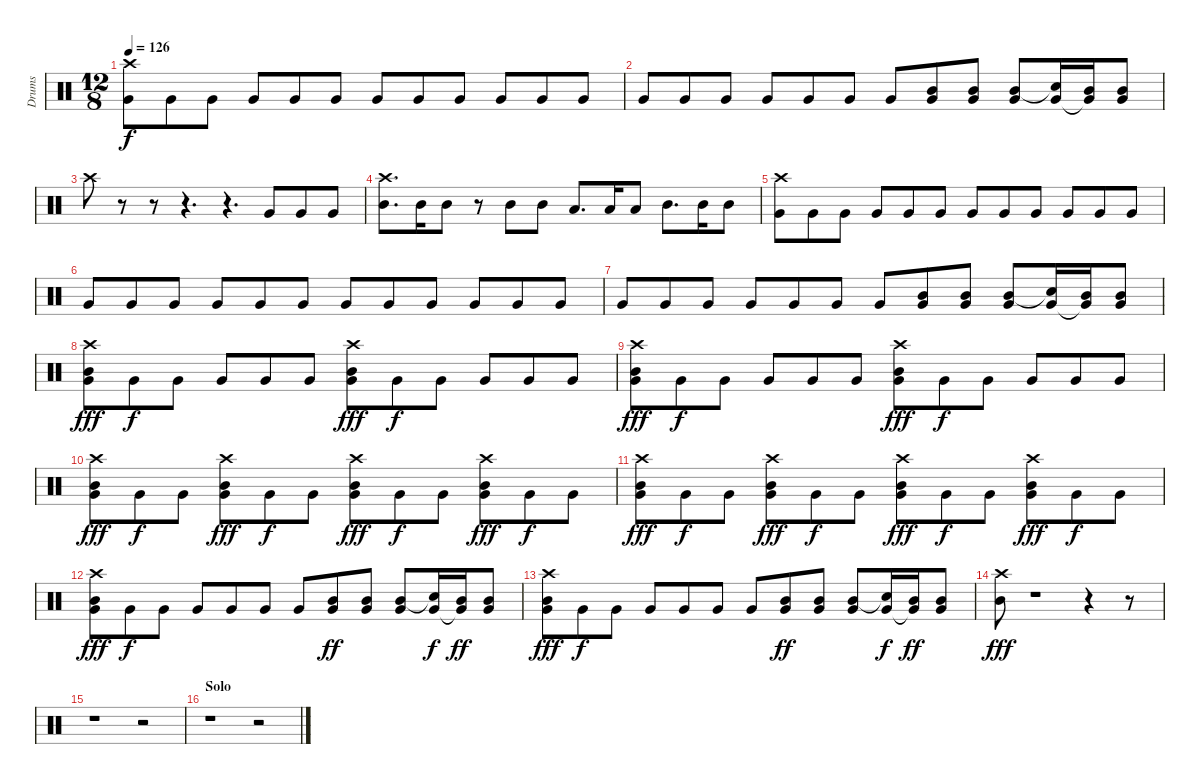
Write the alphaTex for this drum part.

\track ("Drums" "Drums") {instrument percussion}
\staff {score}
\articulation defaults
\ts (12 8)
\tempo 126
\clef neutral
\ks c
("Crash high (hit)" "Very Low Tom (hit)").8{dy f} "Very Low Tom (hit)".8 "Very Low Tom (hit)".8 "Very Low Tom (hit)".8 "Very Low Tom (hit)".8 "Very Low Tom (hit)".8 "Very Low Tom (hit)".8 "Very Low Tom (hit)".8 "Very Low Tom (hit)".8 "Very Low Tom (hit)".8 "Very Low Tom (hit)".8 "Very Low Tom (hit)".8 |
"Very Low Tom (hit)".8 "Very Low Tom (hit)".8 "Very Low Tom (hit)".8 "Very Low Tom (hit)".8 "Very Low Tom (hit)".8 "Very Low Tom (hit)".8 "Very Low Tom (hit)".8 ("Mid Tom (hit)" "Very Low Tom (hit)").8 ("Mid Tom (hit)" "Very Low Tom (hit)").8 ("Mid Tom (hit)" "Very Low Tom (hit)").8 ("Snare (hit)"{t} "Very Low Tom (hit)").16 ("Mid Tom (hit)" "Very Low Tom (hit)"{t}).16 ("Mid Tom (hit)" "Very Low Tom (hit)").8 |
"Crash high (hit)".8 r.8 r.8 r.4{d} r.4{d} "Very Low Tom (hit)".8 "Very Low Tom (hit)".8 "Very Low Tom (hit)".8 |
("Crash high (hit)" "Mid Tom (hit)").8{d} "Mid Tom (hit)".16 "Mid Tom (hit)".8 r.8 "Mid Tom (hit)".8 "Mid Tom (hit)".8 "Low Tom (hit)".8{d} "Low Tom (hit)".16 "Low Tom (hit)".8 "Mid Tom (hit)".8{d} "Mid Tom (hit)".16 "Mid Tom (hit)".8 |
("Crash high (hit)" "Very Low Tom (hit)").8 "Very Low Tom (hit)".8 "Very Low Tom (hit)".8 "Very Low Tom (hit)".8 "Very Low Tom (hit)".8 "Very Low Tom (hit)".8 "Very Low Tom (hit)".8 "Very Low Tom (hit)".8 "Very Low Tom (hit)".8 "Very Low Tom (hit)".8 "Very Low Tom (hit)".8 "Very Low Tom (hit)".8 |
"Very Low Tom (hit)".8 "Very Low Tom (hit)".8 "Very Low Tom (hit)".8 "Very Low Tom (hit)".8 "Very Low Tom (hit)".8 "Very Low Tom (hit)".8 "Very Low Tom (hit)".8 "Very Low Tom (hit)".8 "Very Low Tom (hit)".8 "Very Low Tom (hit)".8 "Very Low Tom (hit)".8 "Very Low Tom (hit)".8 |
"Very Low Tom (hit)".8 "Very Low Tom (hit)".8 "Very Low Tom (hit)".8 "Very Low Tom (hit)".8 "Very Low Tom (hit)".8 "Very Low Tom (hit)".8 "Very Low Tom (hit)".8 ("Mid Tom (hit)" "Very Low Tom (hit)").8 ("Mid Tom (hit)" "Very Low Tom (hit)").8 ("Mid Tom (hit)" "Very Low Tom (hit)").8 ("Snare (hit)"{t} "Very Low Tom (hit)").16 ("Mid Tom (hit)" "Very Low Tom (hit)"{t}).16 ("Mid Tom (hit)" "Very Low Tom (hit)").8 |
("Crash high (hit)" "Very Low Tom (hit)" "Mid Tom (hit)").8{dy fff} "Very Low Tom (hit)".8{dy f} "Very Low Tom (hit)".8 "Very Low Tom (hit)".8 "Very Low Tom (hit)".8 "Very Low Tom (hit)".8 ("Crash high (hit)" "Very Low Tom (hit)" "Mid Tom (hit)").8{dy fff} "Very Low Tom (hit)".8{dy f} "Very Low Tom (hit)".8 "Very Low Tom (hit)".8 "Very Low Tom (hit)".8 "Very Low Tom (hit)".8 |
("Crash high (hit)" "Very Low Tom (hit)" "Mid Tom (hit)").8{dy fff} "Very Low Tom (hit)".8{dy f} "Very Low Tom (hit)".8 "Very Low Tom (hit)".8 "Very Low Tom (hit)".8 "Very Low Tom (hit)".8 ("Crash high (hit)" "Very Low Tom (hit)" "Mid Tom (hit)").8{dy fff} "Very Low Tom (hit)".8{dy f} "Very Low Tom (hit)".8 "Very Low Tom (hit)".8 "Very Low Tom (hit)".8 "Very Low Tom (hit)".8 |
("Crash high (hit)" "Very Low Tom (hit)" "Mid Tom (hit)").8{dy fff} "Very Low Tom (hit)".8{dy f} "Very Low Tom (hit)".8 ("Crash high (hit)" "Very Low Tom (hit)" "Mid Tom (hit)").8{dy fff} "Very Low Tom (hit)".8{dy f} "Very Low Tom (hit)".8 ("Crash high (hit)" "Very Low Tom (hit)" "Mid Tom (hit)").8{dy fff} "Very Low Tom (hit)".8{dy f} "Very Low Tom (hit)".8 ("Crash high (hit)" "Very Low Tom (hit)" "Mid Tom (hit)").8{dy fff} "Very Low Tom (hit)".8{dy f} "Very Low Tom (hit)".8 |
("Crash high (hit)" "Very Low Tom (hit)" "Mid Tom (hit)").8{dy fff} "Very Low Tom (hit)".8{dy f} "Very Low Tom (hit)".8 ("Crash high (hit)" "Very Low Tom (hit)" "Mid Tom (hit)").8{dy fff} "Very Low Tom (hit)".8{dy f} "Very Low Tom (hit)".8 ("Crash high (hit)" "Very Low Tom (hit)" "Mid Tom (hit)").8{dy fff} "Very Low Tom (hit)".8{dy f} "Very Low Tom (hit)".8 ("Crash high (hit)" "Very Low Tom (hit)" "Mid Tom (hit)").8{dy fff} "Very Low Tom (hit)".8{dy f} "Very Low Tom (hit)".8 |
("Crash high (hit)" "Very Low Tom (hit)" "Mid Tom (hit)").8{dy fff} "Very Low Tom (hit)".8{dy f} "Very Low Tom (hit)".8 "Very Low Tom (hit)".8 "Very Low Tom (hit)".8 "Very Low Tom (hit)".8 "Very Low Tom (hit)".8 ("Mid Tom (hit)" "Very Low Tom (hit)").8{dy ff} ("Mid Tom (hit)" "Very Low Tom (hit)").8 ("Mid Tom (hit)" "Very Low Tom (hit)").8 ("Snare (hit)"{t} "Very Low Tom (hit)").16{dy f} ("Mid Tom (hit)" "Very Low Tom (hit)"{t}).16{dy ff} ("Mid Tom (hit)" "Very Low Tom (hit)").8 |
("Crash high (hit)" "Very Low Tom (hit)" "Mid Tom (hit)").8{dy fff} "Very Low Tom (hit)".8{dy f} "Very Low Tom (hit)".8 "Very Low Tom (hit)".8 "Very Low Tom (hit)".8 "Very Low Tom (hit)".8 "Very Low Tom (hit)".8 ("Mid Tom (hit)" "Very Low Tom (hit)").8{dy ff} ("Mid Tom (hit)" "Very Low Tom (hit)").8 ("Mid Tom (hit)" "Very Low Tom (hit)").8 ("Snare (hit)"{t} "Very Low Tom (hit)").16{dy f} ("Mid Tom (hit)" "Very Low Tom (hit)"{t}).16{dy ff} ("Mid Tom (hit)" "Very Low Tom (hit)").8 |
("Crash high (hit)" "Mid Tom (hit)").8{dy fff} r.1 r.4 r.8 |
r.1 r.2 |
\section ("" "Solo")
r.1 r.2
